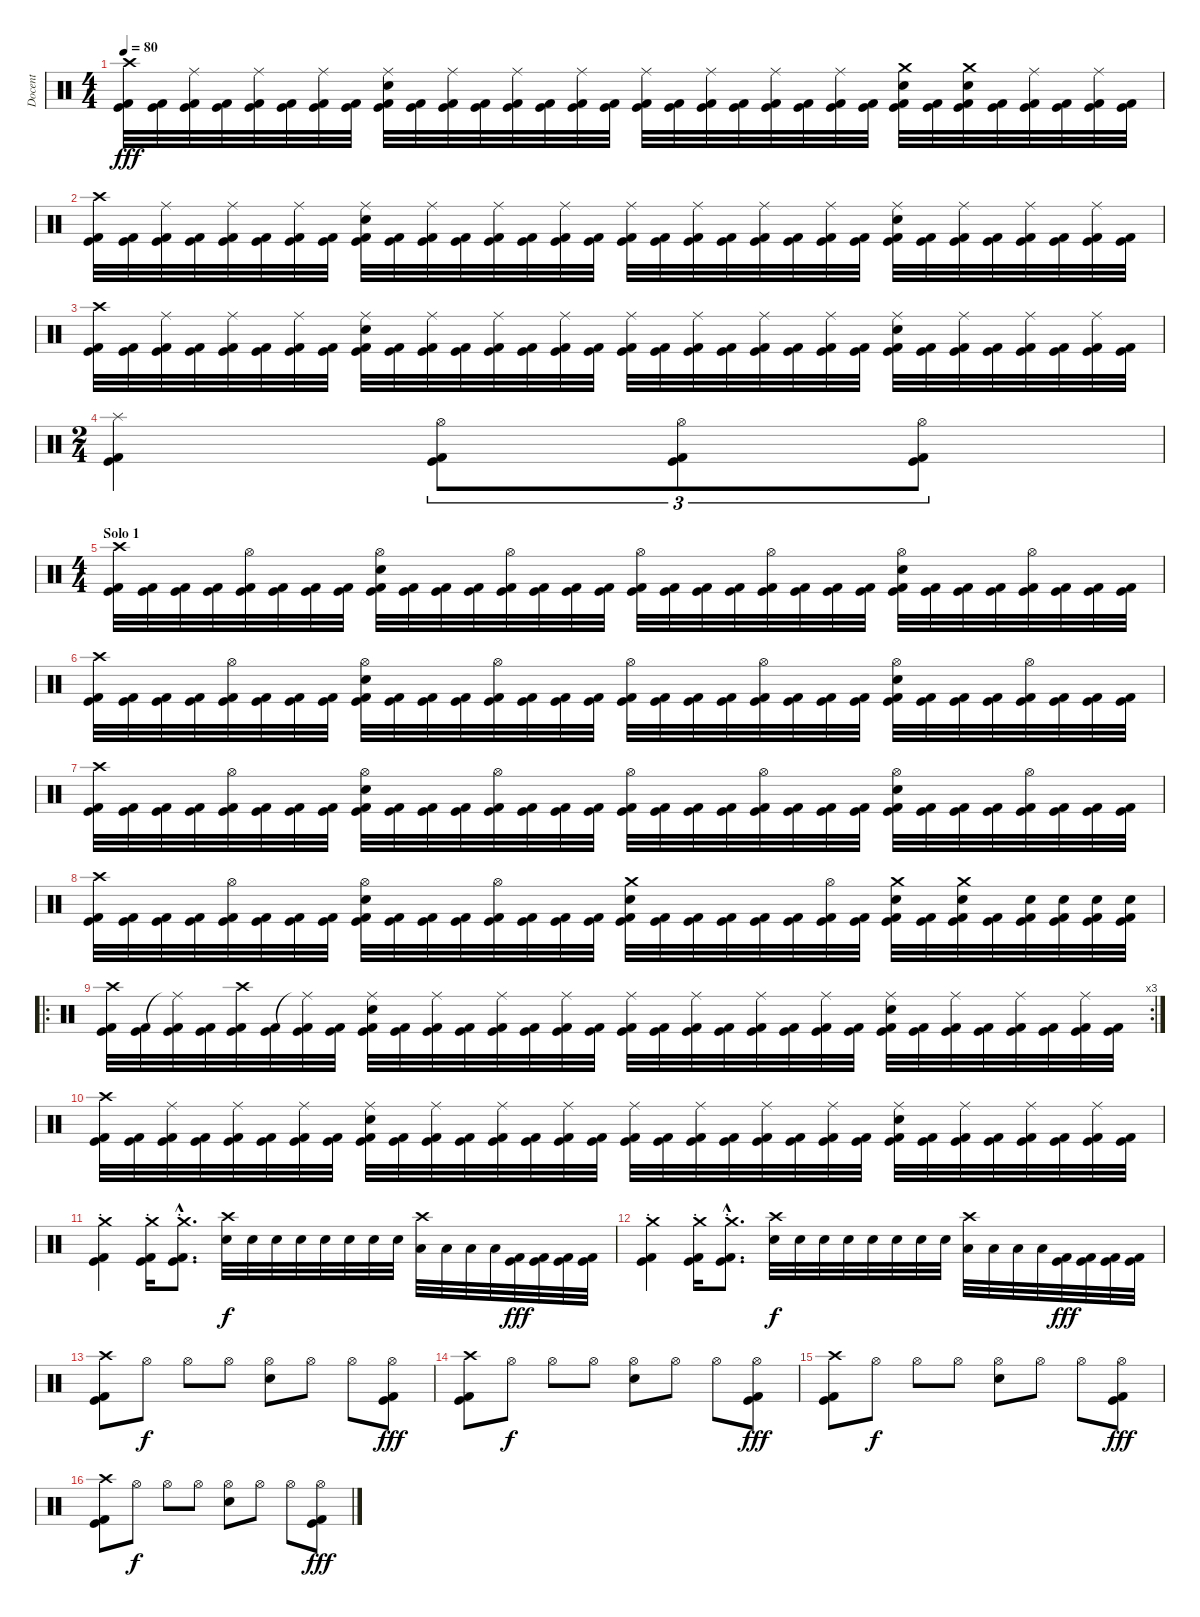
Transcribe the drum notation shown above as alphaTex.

\track ("Docent" "Docent") {instrument percussion}
\staff {score}
\articulation defaults
\ts (4 4)
\tempo 80
\clef neutral
\ks c
("Crash high (hit)" "Kick (hit)" "Kick (hit) 2").32{dy fff} ("Kick (hit)" "Kick (hit) 2").32 ("Ride (middle)" "Kick (hit)" "Kick (hit) 2").32 ("Kick (hit)" "Kick (hit) 2").32 ("Ride (middle)" "Kick (hit)" "Kick (hit) 2").32 ("Kick (hit)" "Kick (hit) 2").32 ("Ride (middle)" "Kick (hit)" "Kick (hit) 2").32 ("Kick (hit)" "Kick (hit) 2").32 ("Ride (middle)" "Electric Snare (hit)" "Kick (hit)" "Kick (hit) 2").32 ("Kick (hit)" "Kick (hit) 2").32 ("Ride (middle)" "Kick (hit)" "Kick (hit) 2").32 ("Kick (hit)" "Kick (hit) 2").32 ("Ride (middle)" "Kick (hit)" "Kick (hit) 2").32 ("Kick (hit)" "Kick (hit) 2").32 ("Ride (middle)" "Kick (hit)" "Kick (hit) 2").32 ("Kick (hit)" "Kick (hit) 2").32 ("Ride (middle)" "Kick (hit)" "Kick (hit) 2").32 ("Kick (hit)" "Kick (hit) 2").32 ("Ride (middle)" "Kick (hit)" "Kick (hit) 2").32 ("Kick (hit)" "Kick (hit) 2").32 ("Ride (middle)" "Kick (hit)" "Kick (hit) 2").32 ("Kick (hit)" "Kick (hit) 2").32 ("Ride (middle)" "Kick (hit)" "Kick (hit) 2").32 ("Kick (hit)" "Kick (hit) 2").32 ("Crash medium (hit)" "Electric Snare (hit)" "Kick (hit)" "Kick (hit) 2").32 ("Kick (hit)" "Kick (hit) 2").32 ("Crash medium (hit)" "Electric Snare (hit)" "Kick (hit)" "Kick (hit) 2").32 ("Kick (hit)" "Kick (hit) 2").32 ("Ride (middle)" "Kick (hit)" "Kick (hit) 2").32 ("Kick (hit)" "Kick (hit) 2").32 ("Ride (middle)" "Kick (hit)" "Kick (hit) 2").32 ("Kick (hit)" "Kick (hit) 2").32 |
("Crash high (hit)" "Kick (hit)" "Kick (hit) 2").32 ("Kick (hit)" "Kick (hit) 2").32 ("Ride (middle)" "Kick (hit)" "Kick (hit) 2").32 ("Kick (hit)" "Kick (hit) 2").32 ("Ride (middle)" "Kick (hit)" "Kick (hit) 2").32 ("Kick (hit)" "Kick (hit) 2").32 ("Ride (middle)" "Kick (hit)" "Kick (hit) 2").32 ("Kick (hit)" "Kick (hit) 2").32 ("Ride (middle)" "Electric Snare (hit)" "Kick (hit)" "Kick (hit) 2").32 ("Kick (hit)" "Kick (hit) 2").32 ("Ride (middle)" "Kick (hit)" "Kick (hit) 2").32 ("Kick (hit)" "Kick (hit) 2").32 ("Ride (middle)" "Kick (hit)" "Kick (hit) 2").32 ("Kick (hit)" "Kick (hit) 2").32 ("Ride (middle)" "Kick (hit)" "Kick (hit) 2").32 ("Kick (hit)" "Kick (hit) 2").32 ("Ride (middle)" "Kick (hit)" "Kick (hit) 2").32 ("Kick (hit)" "Kick (hit) 2").32 ("Ride (middle)" "Kick (hit)" "Kick (hit) 2").32 ("Kick (hit)" "Kick (hit) 2").32 ("Ride (middle)" "Kick (hit)" "Kick (hit) 2").32 ("Kick (hit)" "Kick (hit) 2").32 ("Ride (middle)" "Kick (hit)" "Kick (hit) 2").32 ("Kick (hit)" "Kick (hit) 2").32 ("Ride (middle)" "Electric Snare (hit)" "Kick (hit)" "Kick (hit) 2").32 ("Kick (hit)" "Kick (hit) 2").32 ("Ride (middle)" "Kick (hit)" "Kick (hit) 2").32 ("Kick (hit)" "Kick (hit) 2").32 ("Ride (middle)" "Kick (hit)" "Kick (hit) 2").32 ("Kick (hit)" "Kick (hit) 2").32 ("Ride (middle)" "Kick (hit)" "Kick (hit) 2").32 ("Kick (hit)" "Kick (hit) 2").32 |
("Crash high (hit)" "Kick (hit)" "Kick (hit) 2").32 ("Kick (hit)" "Kick (hit) 2").32 ("Ride (middle)" "Kick (hit)" "Kick (hit) 2").32 ("Kick (hit)" "Kick (hit) 2").32 ("Ride (middle)" "Kick (hit)" "Kick (hit) 2").32 ("Kick (hit)" "Kick (hit) 2").32 ("Ride (middle)" "Kick (hit)" "Kick (hit) 2").32 ("Kick (hit)" "Kick (hit) 2").32 ("Ride (middle)" "Electric Snare (hit)" "Kick (hit)" "Kick (hit) 2").32 ("Kick (hit)" "Kick (hit) 2").32 ("Ride (middle)" "Kick (hit)" "Kick (hit) 2").32 ("Kick (hit)" "Kick (hit) 2").32 ("Ride (middle)" "Kick (hit)" "Kick (hit) 2").32 ("Kick (hit)" "Kick (hit) 2").32 ("Ride (middle)" "Kick (hit)" "Kick (hit) 2").32 ("Kick (hit)" "Kick (hit) 2").32 ("Ride (middle)" "Kick (hit)" "Kick (hit) 2").32 ("Kick (hit)" "Kick (hit) 2").32 ("Ride (middle)" "Kick (hit)" "Kick (hit) 2").32 ("Kick (hit)" "Kick (hit) 2").32 ("Ride (middle)" "Kick (hit)" "Kick (hit) 2").32 ("Kick (hit)" "Kick (hit) 2").32 ("Ride (middle)" "Kick (hit)" "Kick (hit) 2").32 ("Kick (hit)" "Kick (hit) 2").32 ("Ride (middle)" "Electric Snare (hit)" "Kick (hit)" "Kick (hit) 2").32 ("Kick (hit)" "Kick (hit) 2").32 ("Ride (middle)" "Kick (hit)" "Kick (hit) 2").32 ("Kick (hit)" "Kick (hit) 2").32 ("Ride (middle)" "Kick (hit)" "Kick (hit) 2").32 ("Kick (hit)" "Kick (hit) 2").32 ("Ride (middle)" "Kick (hit)" "Kick (hit) 2").32 ("Kick (hit)" "Kick (hit) 2").32 |
\ts (2 4)
("Kick (hit) 2" "Kick (hit)" "Splash (hit)").4 ("Hi-Hat (open)" "Kick (hit)" "Kick (hit) 2").8{tu (3 2)} ("Hi-Hat (open)" "Kick (hit)" "Kick (hit) 2").8{tu (3 2)} ("Hi-Hat (open)" "Kick (hit)" "Kick (hit) 2").8{tu (3 2)} |
\ts (4 4)
\section ("" "Solo 1")
("Crash high (hit)" "Kick (hit)" "Kick (hit) 2").32 ("Kick (hit)" "Kick (hit) 2").32 ("Kick (hit)" "Kick (hit) 2").32 ("Kick (hit)" "Kick (hit) 2").32 ("Hi-Hat (open)" "Kick (hit)" "Kick (hit) 2").32 ("Kick (hit)" "Kick (hit) 2").32 ("Kick (hit)" "Kick (hit) 2").32 ("Kick (hit)" "Kick (hit) 2").32 ("Hi-Hat (open)" "Electric Snare (hit)" "Kick (hit)" "Kick (hit) 2").32 ("Kick (hit)" "Kick (hit) 2").32 ("Kick (hit)" "Kick (hit) 2").32 ("Kick (hit)" "Kick (hit) 2").32 ("Hi-Hat (open)" "Kick (hit)" "Kick (hit) 2").32 ("Kick (hit)" "Kick (hit) 2").32 ("Kick (hit)" "Kick (hit) 2").32 ("Kick (hit)" "Kick (hit) 2").32 ("Hi-Hat (open)" "Kick (hit)" "Kick (hit) 2").32 ("Kick (hit)" "Kick (hit) 2").32 ("Kick (hit)" "Kick (hit) 2").32 ("Kick (hit)" "Kick (hit) 2").32 ("Hi-Hat (open)" "Kick (hit)" "Kick (hit) 2").32 ("Kick (hit)" "Kick (hit) 2").32 ("Kick (hit)" "Kick (hit) 2").32 ("Kick (hit)" "Kick (hit) 2").32 ("Hi-Hat (open)" "Electric Snare (hit)" "Kick (hit)" "Kick (hit) 2").32 ("Kick (hit)" "Kick (hit) 2").32 ("Kick (hit)" "Kick (hit) 2").32 ("Kick (hit)" "Kick (hit) 2").32 ("Hi-Hat (open)" "Kick (hit)" "Kick (hit) 2").32 ("Kick (hit)" "Kick (hit) 2").32 ("Kick (hit)" "Kick (hit) 2").32 ("Kick (hit)" "Kick (hit) 2").32 |
("Crash high (hit)" "Kick (hit)" "Kick (hit) 2").32 ("Kick (hit)" "Kick (hit) 2").32 ("Kick (hit)" "Kick (hit) 2").32 ("Kick (hit)" "Kick (hit) 2").32 ("Hi-Hat (open)" "Kick (hit)" "Kick (hit) 2").32 ("Kick (hit)" "Kick (hit) 2").32 ("Kick (hit)" "Kick (hit) 2").32 ("Kick (hit)" "Kick (hit) 2").32 ("Hi-Hat (open)" "Electric Snare (hit)" "Kick (hit)" "Kick (hit) 2").32 ("Kick (hit)" "Kick (hit) 2").32 ("Kick (hit)" "Kick (hit) 2").32 ("Kick (hit)" "Kick (hit) 2").32 ("Hi-Hat (open)" "Kick (hit)" "Kick (hit) 2").32 ("Kick (hit)" "Kick (hit) 2").32 ("Kick (hit)" "Kick (hit) 2").32 ("Kick (hit)" "Kick (hit) 2").32 ("Hi-Hat (open)" "Kick (hit)" "Kick (hit) 2").32 ("Kick (hit)" "Kick (hit) 2").32 ("Kick (hit)" "Kick (hit) 2").32 ("Kick (hit)" "Kick (hit) 2").32 ("Hi-Hat (open)" "Kick (hit)" "Kick (hit) 2").32 ("Kick (hit)" "Kick (hit) 2").32 ("Kick (hit)" "Kick (hit) 2").32 ("Kick (hit)" "Kick (hit) 2").32 ("Hi-Hat (open)" "Electric Snare (hit)" "Kick (hit)" "Kick (hit) 2").32 ("Kick (hit)" "Kick (hit) 2").32 ("Kick (hit)" "Kick (hit) 2").32 ("Kick (hit)" "Kick (hit) 2").32 ("Hi-Hat (open)" "Kick (hit)" "Kick (hit) 2").32 ("Kick (hit)" "Kick (hit) 2").32 ("Kick (hit)" "Kick (hit) 2").32 ("Kick (hit)" "Kick (hit) 2").32 |
("Crash high (hit)" "Kick (hit)" "Kick (hit) 2").32 ("Kick (hit)" "Kick (hit) 2").32 ("Kick (hit)" "Kick (hit) 2").32 ("Kick (hit)" "Kick (hit) 2").32 ("Hi-Hat (open)" "Kick (hit)" "Kick (hit) 2").32 ("Kick (hit)" "Kick (hit) 2").32 ("Kick (hit)" "Kick (hit) 2").32 ("Kick (hit)" "Kick (hit) 2").32 ("Hi-Hat (open)" "Electric Snare (hit)" "Kick (hit)" "Kick (hit) 2").32 ("Kick (hit)" "Kick (hit) 2").32 ("Kick (hit)" "Kick (hit) 2").32 ("Kick (hit)" "Kick (hit) 2").32 ("Hi-Hat (open)" "Kick (hit)" "Kick (hit) 2").32 ("Kick (hit)" "Kick (hit) 2").32 ("Kick (hit)" "Kick (hit) 2").32 ("Kick (hit)" "Kick (hit) 2").32 ("Hi-Hat (open)" "Kick (hit)" "Kick (hit) 2").32 ("Kick (hit)" "Kick (hit) 2").32 ("Kick (hit)" "Kick (hit) 2").32 ("Kick (hit)" "Kick (hit) 2").32 ("Hi-Hat (open)" "Kick (hit)" "Kick (hit) 2").32 ("Kick (hit)" "Kick (hit) 2").32 ("Kick (hit)" "Kick (hit) 2").32 ("Kick (hit)" "Kick (hit) 2").32 ("Hi-Hat (open)" "Electric Snare (hit)" "Kick (hit)" "Kick (hit) 2").32 ("Kick (hit)" "Kick (hit) 2").32 ("Kick (hit)" "Kick (hit) 2").32 ("Kick (hit)" "Kick (hit) 2").32 ("Hi-Hat (open)" "Kick (hit)" "Kick (hit) 2").32 ("Kick (hit)" "Kick (hit) 2").32 ("Kick (hit)" "Kick (hit) 2").32 ("Kick (hit)" "Kick (hit) 2").32 |
("Crash high (hit)" "Kick (hit)" "Kick (hit) 2").32 ("Kick (hit)" "Kick (hit) 2").32 ("Kick (hit)" "Kick (hit) 2").32 ("Kick (hit)" "Kick (hit) 2").32 ("Hi-Hat (open)" "Kick (hit)" "Kick (hit) 2").32 ("Kick (hit)" "Kick (hit) 2").32 ("Kick (hit)" "Kick (hit) 2").32 ("Kick (hit)" "Kick (hit) 2").32 ("Hi-Hat (open)" "Electric Snare (hit)" "Kick (hit)" "Kick (hit) 2").32 ("Kick (hit)" "Kick (hit) 2").32 ("Kick (hit)" "Kick (hit) 2").32 ("Kick (hit)" "Kick (hit) 2").32 ("Hi-Hat (open)" "Kick (hit)" "Kick (hit) 2").32 ("Kick (hit)" "Kick (hit) 2").32 ("Kick (hit)" "Kick (hit) 2").32 ("Kick (hit)" "Kick (hit) 2").32 ("Crash medium (hit)" "Electric Snare (hit)" "Kick (hit)" "Kick (hit) 2").32 ("Kick (hit)" "Kick (hit) 2").32 ("Kick (hit)" "Kick (hit) 2").32 ("Kick (hit)" "Kick (hit) 2").32 ("Kick (hit)" "Kick (hit) 2").32 ("Kick (hit)" "Kick (hit) 2").32 ("Hi-Hat (open)" "Kick (hit)" "Kick (hit) 2").32 ("Kick (hit)" "Kick (hit) 2").32 ("Crash medium (hit)" "Electric Snare (hit)" "Kick (hit)" "Kick (hit) 2").32 ("Kick (hit)" "Kick (hit) 2").32 ("Crash medium (hit)" "Electric Snare (hit)" "Kick (hit)" "Kick (hit) 2").32 ("Kick (hit)" "Kick (hit) 2").32 ("Electric Snare (hit)" "Kick (hit)" "Kick (hit) 2").32 ("Electric Snare (hit)" "Kick (hit)" "Kick (hit) 2").32 ("Electric Snare (hit)" "Kick (hit)" "Kick (hit) 2").32 ("Electric Snare (hit)" "Kick (hit)" "Kick (hit) 2").32 |
\ro
\rc 3
("Crash high (hit)" "Kick (hit)" "Kick (hit) 2").32 ("Kick (hit)" "Kick (hit) 2").32 ("Ride (middle)"{t} "Kick (hit)" "Kick (hit) 2").32 ("Kick (hit)" "Kick (hit) 2").32 ("Crash high (hit)" "Kick (hit)" "Kick (hit) 2").32 ("Kick (hit)" "Kick (hit) 2").32 ("Ride (middle)"{t} "Kick (hit)" "Kick (hit) 2").32 ("Kick (hit)" "Kick (hit) 2").32 ("Ride (middle)" "Electric Snare (hit)" "Kick (hit)" "Kick (hit) 2").32 ("Kick (hit)" "Kick (hit) 2").32 ("Ride (middle)" "Kick (hit)" "Kick (hit) 2").32 ("Kick (hit)" "Kick (hit) 2").32 ("Ride (middle)" "Kick (hit)" "Kick (hit) 2").32 ("Kick (hit)" "Kick (hit) 2").32 ("Ride (middle)" "Kick (hit)" "Kick (hit) 2").32 ("Kick (hit)" "Kick (hit) 2").32 ("Ride (middle)" "Kick (hit)" "Kick (hit) 2").32 ("Kick (hit)" "Kick (hit) 2").32 ("Ride (middle)" "Kick (hit)" "Kick (hit) 2").32 ("Kick (hit)" "Kick (hit) 2").32 ("Ride (middle)" "Kick (hit)" "Kick (hit) 2").32 ("Kick (hit)" "Kick (hit) 2").32 ("Ride (middle)" "Kick (hit)" "Kick (hit) 2").32 ("Kick (hit)" "Kick (hit) 2").32 ("Ride (middle)" "Electric Snare (hit)" "Kick (hit)" "Kick (hit) 2").32 ("Kick (hit)" "Kick (hit) 2").32 ("Ride (middle)" "Kick (hit)" "Kick (hit) 2").32 ("Kick (hit)" "Kick (hit) 2").32 ("Ride (middle)" "Kick (hit)" "Kick (hit) 2").32 ("Kick (hit)" "Kick (hit) 2").32 ("Ride (middle)" "Kick (hit)" "Kick (hit) 2").32 ("Kick (hit)" "Kick (hit) 2").32 |
("Crash high (hit)" "Kick (hit)" "Kick (hit) 2").32 ("Kick (hit)" "Kick (hit) 2").32 ("Ride (middle)" "Kick (hit)" "Kick (hit) 2").32 ("Kick (hit)" "Kick (hit) 2").32 ("Ride (middle)" "Kick (hit)" "Kick (hit) 2").32 ("Kick (hit)" "Kick (hit) 2").32 ("Ride (middle)" "Kick (hit)" "Kick (hit) 2").32 ("Kick (hit)" "Kick (hit) 2").32 ("Ride (middle)" "Electric Snare (hit)" "Kick (hit)" "Kick (hit) 2").32 ("Kick (hit)" "Kick (hit) 2").32 ("Ride (middle)" "Kick (hit)" "Kick (hit) 2").32 ("Kick (hit)" "Kick (hit) 2").32 ("Ride (middle)" "Kick (hit)" "Kick (hit) 2").32 ("Kick (hit)" "Kick (hit) 2").32 ("Ride (middle)" "Kick (hit)" "Kick (hit) 2").32 ("Kick (hit)" "Kick (hit) 2").32 ("Ride (middle)" "Kick (hit)" "Kick (hit) 2").32 ("Kick (hit)" "Kick (hit) 2").32 ("Ride (middle)" "Kick (hit)" "Kick (hit) 2").32 ("Kick (hit)" "Kick (hit) 2").32 ("Ride (middle)" "Kick (hit)" "Kick (hit) 2").32 ("Kick (hit)" "Kick (hit) 2").32 ("Ride (middle)" "Kick (hit)" "Kick (hit) 2").32 ("Kick (hit)" "Kick (hit) 2").32 ("Ride (middle)" "Electric Snare (hit)" "Kick (hit)" "Kick (hit) 2").32 ("Kick (hit)" "Kick (hit) 2").32 ("Ride (middle)" "Kick (hit)" "Kick (hit) 2").32 ("Kick (hit)" "Kick (hit) 2").32 ("Ride (middle)" "Kick (hit)" "Kick (hit) 2").32 ("Kick (hit)" "Kick (hit) 2").32 ("Ride (middle)" "Kick (hit)" "Kick (hit) 2").32 ("Kick (hit)" "Kick (hit) 2").32 |
("Crash medium (hit)"{st} "Kick (hit)" "Kick (hit) 2").4 ("Crash medium (hit)"{st} "Kick (hit)" "Kick (hit) 2").16 ("Crash medium (hit)"{hac st} "Kick (hit)"{hac} "Kick (hit) 2"{hac}).8{d} ("Crash high (hit)" "Electric Snare (hit)").32{dy f} "Electric Snare (hit)".32 "Electric Snare (hit)".32 "Electric Snare (hit)".32 "Electric Snare (hit)".32 "Electric Snare (hit)".32 "Electric Snare (hit)".32 "Electric Snare (hit)".32 ("Crash high (hit)" "Low Tom (hit)").32 "Low Tom (hit)".32 "Low Tom (hit)".32 "Low Tom (hit)".32 ("Kick (hit)" "Kick (hit) 2").32{dy fff} ("Kick (hit)" "Kick (hit) 2").32 ("Kick (hit)" "Kick (hit) 2").32 ("Kick (hit)" "Kick (hit) 2").32 |
("Crash medium (hit)"{st} "Kick (hit)" "Kick (hit) 2").4 ("Crash medium (hit)"{st} "Kick (hit)" "Kick (hit) 2").16 ("Crash medium (hit)"{hac st} "Kick (hit)"{hac} "Kick (hit) 2"{hac}).8{d} ("Crash high (hit)" "Electric Snare (hit)").32{dy f} "Electric Snare (hit)".32 "Electric Snare (hit)".32 "Electric Snare (hit)".32 "Electric Snare (hit)".32 "Electric Snare (hit)".32 "Electric Snare (hit)".32 "Electric Snare (hit)".32 ("Crash high (hit)" "Low Tom (hit)").32 "Low Tom (hit)".32 "Low Tom (hit)".32 "Low Tom (hit)".32 ("Kick (hit)" "Kick (hit) 2").32{dy fff} ("Kick (hit)" "Kick (hit) 2").32 ("Kick (hit)" "Kick (hit) 2").32 ("Kick (hit)" "Kick (hit) 2").32 |
("Crash high (hit)" "Kick (hit)" "Kick (hit) 2").8 "Hi-Hat (open)".8{dy f} "Hi-Hat (open)".8 "Hi-Hat (open)".8 ("Hi-Hat (open)" "Electric Snare (hit)").8 "Hi-Hat (open)".8 "Hi-Hat (open)".8 ("Hi-Hat (open)" "Kick (hit)" "Kick (hit) 2").8{dy fff} |
("Crash high (hit)" "Kick (hit)" "Kick (hit) 2").8 "Hi-Hat (open)".8{dy f} "Hi-Hat (open)".8 "Hi-Hat (open)".8 ("Hi-Hat (open)" "Electric Snare (hit)").8 "Hi-Hat (open)".8 "Hi-Hat (open)".8 ("Hi-Hat (open)" "Kick (hit)" "Kick (hit) 2").8{dy fff} |
("Crash high (hit)" "Kick (hit)" "Kick (hit) 2").8 "Hi-Hat (open)".8{dy f} "Hi-Hat (open)".8 "Hi-Hat (open)".8 ("Hi-Hat (open)" "Electric Snare (hit)").8 "Hi-Hat (open)".8 "Hi-Hat (open)".8 ("Hi-Hat (open)" "Kick (hit)" "Kick (hit) 2").8{dy fff} |
("Crash high (hit)" "Kick (hit)" "Kick (hit) 2").8 "Hi-Hat (open)".8{dy f} "Hi-Hat (open)".8 "Hi-Hat (open)".8 ("Hi-Hat (open)" "Electric Snare (hit)").8 "Hi-Hat (open)".8 "Hi-Hat (open)".8 ("Hi-Hat (open)" "Kick (hit)" "Kick (hit) 2").8{dy fff}
